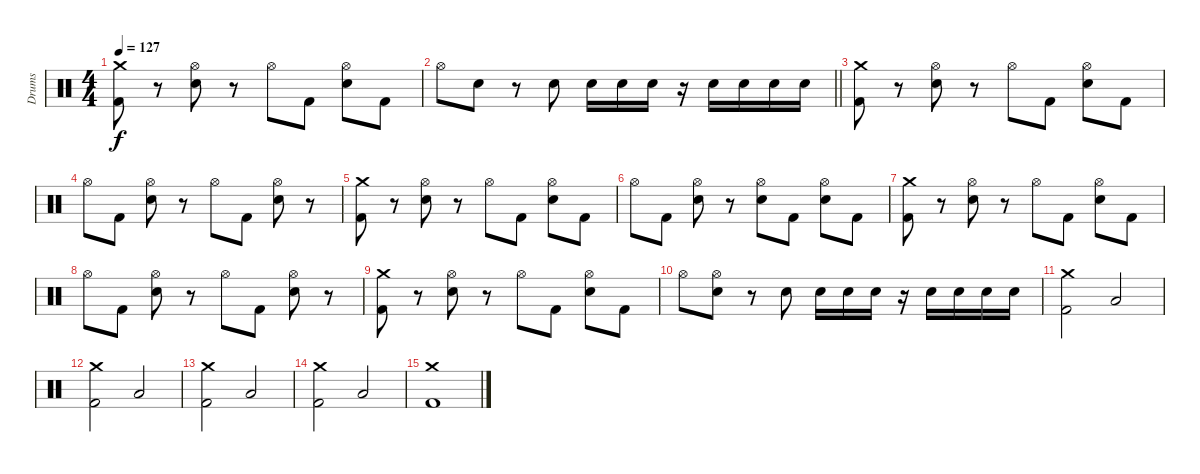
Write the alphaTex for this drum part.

\track ("Drums" "Drums") {instrument percussion}
\staff {score}
\articulation defaults
\ts (4 4)
\tempo 127
\clef neutral
\ks c
("Crash medium (hit)" "Kick (hit) 2").8{dy f} r.8 ("Hi-Hat (open)" "Electric Snare (hit)").8 r.8 "Hi-Hat (open)".8 "Kick (hit) 2".8 ("Hi-Hat (open)" "Electric Snare (hit)").8 "Kick (hit) 2".8 |
\barLineRight lightlight "Hi-Hat (open)".8 "Electric Snare (hit)".8
r.8 "Electric Snare (hit)".8 "Electric Snare (hit)".16 "Electric Snare (hit)".16 "Electric Snare (hit)".16 r.16 "Electric Snare (hit)".16 "Electric Snare (hit)".16 "Electric Snare (hit)".16 "Electric Snare (hit)".16 |
("Crash medium (hit)" "Kick (hit) 2").8 r.8 ("Hi-Hat (open)" "Electric Snare (hit)").8 r.8 "Hi-Hat (open)".8 "Kick (hit) 2".8 ("Hi-Hat (open)" "Electric Snare (hit)").8 "Kick (hit) 2".8 |
"Hi-Hat (open)".8 "Kick (hit) 2".8 ("Hi-Hat (open)" "Electric Snare (hit)").8 r.8 "Hi-Hat (open)".8 "Kick (hit) 2".8 ("Hi-Hat (open)" "Electric Snare (hit)").8 r.8 |
("Crash medium (hit)" "Kick (hit) 2").8 r.8 ("Hi-Hat (open)" "Electric Snare (hit)").8 r.8 "Hi-Hat (open)".8 "Kick (hit) 2".8 ("Hi-Hat (open)" "Electric Snare (hit)").8 "Kick (hit) 2".8 |
"Hi-Hat (open)".8 "Kick (hit) 2".8 ("Hi-Hat (open)" "Electric Snare (hit)").8 r.8 ("Hi-Hat (open)" "Electric Snare (hit)").8 "Kick (hit) 2".8 ("Hi-Hat (open)" "Electric Snare (hit)").8 "Kick (hit) 2".8 |
("Crash medium (hit)" "Kick (hit) 2").8{volume 0} r.8 ("Hi-Hat (open)" "Electric Snare (hit)").8 r.8 "Hi-Hat (open)".8 "Kick (hit) 2".8 ("Hi-Hat (open)" "Electric Snare (hit)").8 "Kick (hit) 2".8 |
"Hi-Hat (open)".8 "Kick (hit) 2".8 ("Hi-Hat (open)" "Electric Snare (hit)").8 r.8 "Hi-Hat (open)".8 "Kick (hit) 2".8 ("Hi-Hat (open)" "Electric Snare (hit)").8 r.8 |
("Crash medium (hit)" "Kick (hit) 2").8 r.8 ("Hi-Hat (open)" "Electric Snare (hit)").8 r.8 "Hi-Hat (open)".8 "Kick (hit) 2".8 ("Hi-Hat (open)" "Electric Snare (hit)").8 "Kick (hit) 2".8 |
"Hi-Hat (open)".8 ("Hi-Hat (open)" "Electric Snare (hit)").8 r.8 "Electric Snare (hit)".8 "Electric Snare (hit)".16 "Electric Snare (hit)".16 "Electric Snare (hit)".16 r.16 "Electric Snare (hit)".16 "Electric Snare (hit)".16 "Electric Snare (hit)".16 "Electric Snare (hit)".16 |
("Kick (hit) 2" "Crash medium (hit)").2{volume 16} "Low Tom (hit)".2 |
("Kick (hit) 2" "Crash medium (hit)").2{volume 16} "Low Tom (hit)".2 |
("Kick (hit) 2" "Crash medium (hit)").2{volume 16} "Low Tom (hit)".2 |
("Kick (hit) 2" "Crash medium (hit)").2{volume 16} "Low Tom (hit)".2 |
("Kick (hit) 2" "Crash medium (hit)").1
